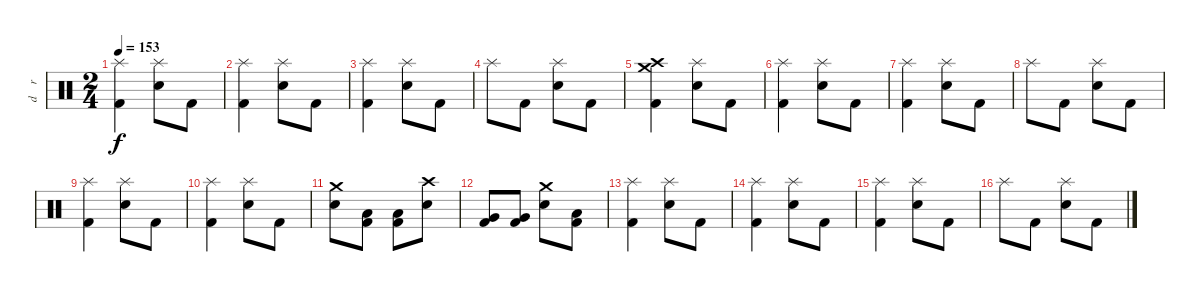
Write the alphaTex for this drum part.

\track ("d    r     u    m    s" "d    r    ") {instrument percussion}
\staff {score}
\articulation defaults
\ts (2 4)
\tempo 153
\clef neutral
\ks c
("Splash (hit)" "Kick (hit) 2").4{dy f} ("Splash (hit)" "Electric Snare (hit)").8 "Kick (hit) 2".8 |
("Splash (hit)" "Kick (hit) 2").4 ("Splash (hit)" "Electric Snare (hit)").8 "Kick (hit) 2".8 |
("Splash (hit)" "Kick (hit) 2").4 ("Splash (hit)" "Electric Snare (hit)").8 "Kick (hit) 2".8 |
"Splash (hit)".8 "Kick (hit) 2".8 ("Splash (hit)" "Electric Snare (hit)").8 "Kick (hit) 2".8 |
("Crash high (hit)" "Crash medium (hit)" "Kick (hit) 2").4 ("Splash (hit)" "Electric Snare (hit)").8 "Kick (hit) 2".8 |
("Splash (hit)" "Kick (hit) 2").4 ("Splash (hit)" "Electric Snare (hit)").8 "Kick (hit) 2".8 |
("Splash (hit)" "Kick (hit) 2").4 ("Splash (hit)" "Electric Snare (hit)").8 "Kick (hit) 2".8 |
"Splash (hit)".8 "Kick (hit) 2".8 ("Splash (hit)" "Electric Snare (hit)").8 "Kick (hit) 2".8 |
("Splash (hit)" "Kick (hit) 2").4 ("Splash (hit)" "Electric Snare (hit)").8 "Kick (hit) 2".8 |
("Splash (hit)" "Kick (hit) 2").4 ("Splash (hit)" "Electric Snare (hit)").8 "Kick (hit) 2".8 |
("Crash medium (hit)" "Electric Snare (hit)").8 ("Low Tom (hit)" "Kick (hit) 2").8 ("Low Tom (hit)" "Kick (hit) 2").8 ("Crash high (hit)" "Electric Snare (hit)").8 |
("Very Low Tom (hit)" "Kick (hit) 2").8 ("Very Low Tom (hit)" "Kick (hit) 2").8 ("Crash medium (hit)" "Electric Snare (hit)").8 ("Low Floor Tom (hit)" "Kick (hit) 2").8 |
("Splash (hit)" "Kick (hit) 2").4 ("Splash (hit)" "Electric Snare (hit)").8 "Kick (hit) 2".8 |
("Splash (hit)" "Kick (hit) 2").4 ("Splash (hit)" "Electric Snare (hit)").8 "Kick (hit) 2".8 |
("Splash (hit)" "Kick (hit) 2").4 ("Splash (hit)" "Electric Snare (hit)").8 "Kick (hit) 2".8 |
"Splash (hit)".8 "Kick (hit) 2".8 ("Splash (hit)" "Electric Snare (hit)").8 "Kick (hit) 2".8
